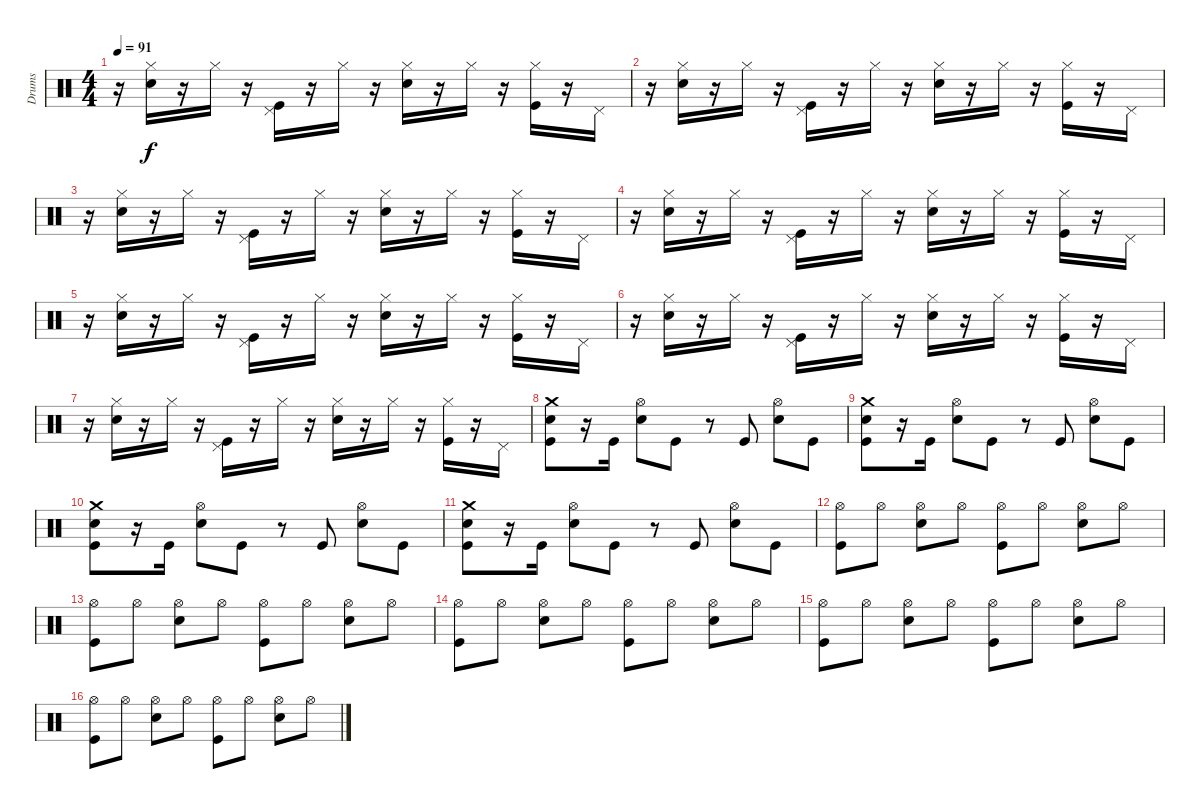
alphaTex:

\track ("Drums" "Drums") {instrument percussion}
\staff {score}
\articulation defaults
\ts (4 4)
\tempo 91
\clef neutral
\ks c
r.16{dy f} ("Hi-Hat (closed)" "Snare (hit) 2").16 r.16 "Hi-Hat (closed)".16 r.16 ("Pedal Hi-Hat (hit)" "Kick (hit)").16 r.16 "Hi-Hat (closed)".16 r.16 ("Hi-Hat (closed)" "Snare (hit) 2").16 r.16 "Hi-Hat (closed)".16 r.16 ("Hi-Hat (closed)" "Kick (hit)").16 r.16 "Pedal Hi-Hat (hit)".16 |
r.16 ("Hi-Hat (closed)" "Snare (hit) 2").16 r.16 "Hi-Hat (closed)".16 r.16 ("Pedal Hi-Hat (hit)" "Kick (hit)").16 r.16 "Hi-Hat (closed)".16 r.16 ("Hi-Hat (closed)" "Snare (hit) 2").16 r.16 "Hi-Hat (closed)".16 r.16 ("Hi-Hat (closed)" "Kick (hit)").16 r.16 "Pedal Hi-Hat (hit)".16 |
r.16 ("Hi-Hat (closed)" "Snare (hit) 2").16 r.16 "Hi-Hat (closed)".16 r.16 ("Pedal Hi-Hat (hit)" "Kick (hit)").16 r.16 "Hi-Hat (closed)".16 r.16 ("Hi-Hat (closed)" "Snare (hit) 2").16 r.16 "Hi-Hat (closed)".16 r.16 ("Hi-Hat (closed)" "Kick (hit)").16 r.16 "Pedal Hi-Hat (hit)".16 |
r.16 ("Hi-Hat (closed)" "Snare (hit) 2").16 r.16 "Hi-Hat (closed)".16 r.16 ("Pedal Hi-Hat (hit)" "Kick (hit)").16 r.16 "Hi-Hat (closed)".16 r.16 ("Hi-Hat (closed)" "Snare (hit) 2").16 r.16 "Hi-Hat (closed)".16 r.16 ("Hi-Hat (closed)" "Kick (hit)").16 r.16 "Pedal Hi-Hat (hit)".16 |
r.16 ("Hi-Hat (closed)" "Snare (hit) 2").16 r.16 "Hi-Hat (closed)".16 r.16 ("Pedal Hi-Hat (hit)" "Kick (hit)").16 r.16 "Hi-Hat (closed)".16 r.16 ("Hi-Hat (closed)" "Snare (hit) 2").16 r.16 "Hi-Hat (closed)".16 r.16 ("Hi-Hat (closed)" "Kick (hit)").16 r.16 "Pedal Hi-Hat (hit)".16 |
r.16 ("Hi-Hat (closed)" "Snare (hit) 2").16 r.16 "Hi-Hat (closed)".16 r.16 ("Pedal Hi-Hat (hit)" "Kick (hit)").16 r.16 "Hi-Hat (closed)".16 r.16 ("Hi-Hat (closed)" "Snare (hit) 2").16 r.16 "Hi-Hat (closed)".16 r.16 ("Hi-Hat (closed)" "Kick (hit)").16 r.16 "Pedal Hi-Hat (hit)".16 |
r.16 ("Hi-Hat (closed)" "Snare (hit) 2").16 r.16 "Hi-Hat (closed)".16 r.16 ("Pedal Hi-Hat (hit)" "Kick (hit)").16 r.16 "Hi-Hat (closed)".16 r.16 ("Hi-Hat (closed)" "Snare (hit) 2").16 r.16 "Hi-Hat (closed)".16 r.16 ("Hi-Hat (closed)" "Kick (hit)").16 r.16 "Pedal Hi-Hat (hit)".16 |
("Crash medium (hit)" "Snare (hit) 2" "Kick (hit)").8 r.16 "Kick (hit)".16 ("Hi-Hat (open)" "Snare (hit) 2").8 "Kick (hit)".8 r.8 "Kick (hit)".8 ("Hi-Hat (open)" "Snare (hit) 2").8 "Kick (hit)".8 |
("Crash medium (hit)" "Snare (hit) 2" "Kick (hit)").8 r.16 "Kick (hit)".16 ("Hi-Hat (open)" "Snare (hit) 2").8 "Kick (hit)".8 r.8 "Kick (hit)".8 ("Hi-Hat (open)" "Snare (hit) 2").8 "Kick (hit)".8 |
("Crash medium (hit)" "Snare (hit) 2" "Kick (hit)").8 r.16 "Kick (hit)".16 ("Hi-Hat (open)" "Snare (hit) 2").8 "Kick (hit)".8 r.8 "Kick (hit)".8 ("Hi-Hat (open)" "Snare (hit) 2").8 "Kick (hit)".8 |
("Crash medium (hit)" "Snare (hit) 2" "Kick (hit)").8 r.16 "Kick (hit)".16 ("Hi-Hat (open)" "Snare (hit) 2").8 "Kick (hit)".8 r.8 "Kick (hit)".8 ("Hi-Hat (open)" "Snare (hit) 2").8 "Kick (hit)".8 |
("Hi-Hat (open)" "Kick (hit)").8 "Hi-Hat (open)".8 ("Hi-Hat (open)" "Snare (hit) 2").8 "Hi-Hat (open)".8 ("Hi-Hat (open)" "Kick (hit)").8 "Hi-Hat (open)".8 ("Hi-Hat (open)" "Snare (hit) 2").8 "Hi-Hat (open)".8 |
("Hi-Hat (open)" "Kick (hit)").8 "Hi-Hat (open)".8 ("Hi-Hat (open)" "Snare (hit) 2").8 "Hi-Hat (open)".8 ("Hi-Hat (open)" "Kick (hit)").8 "Hi-Hat (open)".8 ("Hi-Hat (open)" "Snare (hit) 2").8 "Hi-Hat (open)".8 |
("Hi-Hat (open)" "Kick (hit)").8 "Hi-Hat (open)".8 ("Hi-Hat (open)" "Snare (hit) 2").8 "Hi-Hat (open)".8 ("Hi-Hat (open)" "Kick (hit)").8 "Hi-Hat (open)".8 ("Hi-Hat (open)" "Snare (hit) 2").8 "Hi-Hat (open)".8 |
("Hi-Hat (open)" "Kick (hit)").8 "Hi-Hat (open)".8 ("Hi-Hat (open)" "Snare (hit) 2").8 "Hi-Hat (open)".8 ("Hi-Hat (open)" "Kick (hit)").8 "Hi-Hat (open)".8 ("Hi-Hat (open)" "Snare (hit) 2").8 "Hi-Hat (open)".8 |
("Hi-Hat (open)" "Kick (hit)").8 "Hi-Hat (open)".8 ("Hi-Hat (open)" "Snare (hit) 2").8 "Hi-Hat (open)".8 ("Hi-Hat (open)" "Kick (hit)").8 "Hi-Hat (open)".8 ("Hi-Hat (open)" "Snare (hit) 2").8 "Hi-Hat (open)".8
